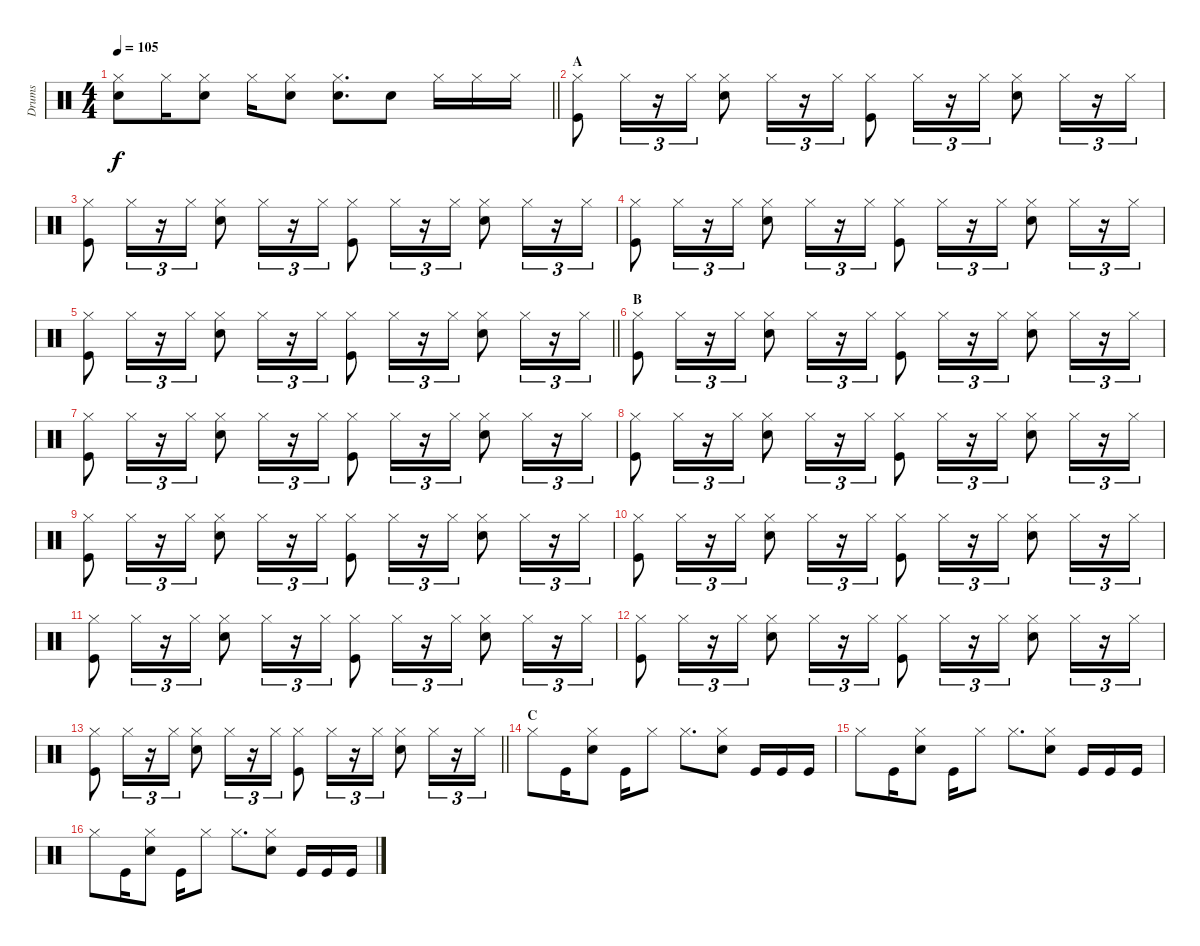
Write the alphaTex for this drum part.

\track ("Drums" "Drums") {instrument percussion}
\staff {score}
\articulation defaults
\ts (4 4)
\tempo 105
\clef neutral
\barLineRight lightlight
\ks c
("Hi-Hat (closed)" "Electric Snare (hit)").8{dy f} "Hi-Hat (closed)".16 ("Hi-Hat (closed)" "Electric Snare (hit)").8 "Hi-Hat (closed)".16 ("Hi-Hat (closed)" "Electric Snare (hit)").8 ("Hi-Hat (closed)" "Electric Snare (hit)").8{d} "Electric Snare (hit)".8 "Hi-Hat (closed)".16 "Hi-Hat (closed)".16 "Hi-Hat (closed)".16 |
\section ("" "A")
("Hi-Hat (closed)" "Kick (hit)").8 "Hi-Hat (closed)".16{tu (3 2)} r.16{tu (3 2)} "Hi-Hat (closed)".16{tu (3 2)} ("Hi-Hat (closed)" "Electric Snare (hit)").8 "Hi-Hat (closed)".16{tu (3 2)} r.16{tu (3 2)} "Hi-Hat (closed)".16{tu (3 2)} ("Hi-Hat (closed)" "Kick (hit)").8 "Hi-Hat (closed)".16{tu (3 2)} r.16{tu (3 2)} "Hi-Hat (closed)".16{tu (3 2)} ("Hi-Hat (closed)" "Electric Snare (hit)").8 "Hi-Hat (closed)".16{tu (3 2)} r.16{tu (3 2)} "Hi-Hat (closed)".16{tu (3 2)} |
("Hi-Hat (closed)" "Kick (hit)").8 "Hi-Hat (closed)".16{tu (3 2)} r.16{tu (3 2)} "Hi-Hat (closed)".16{tu (3 2)} ("Hi-Hat (closed)" "Electric Snare (hit)").8 "Hi-Hat (closed)".16{tu (3 2)} r.16{tu (3 2)} "Hi-Hat (closed)".16{tu (3 2)} ("Hi-Hat (closed)" "Kick (hit)").8 "Hi-Hat (closed)".16{tu (3 2)} r.16{tu (3 2)} "Hi-Hat (closed)".16{tu (3 2)} ("Hi-Hat (closed)" "Electric Snare (hit)").8 "Hi-Hat (closed)".16{tu (3 2)} r.16{tu (3 2)} "Hi-Hat (closed)".16{tu (3 2)} |
("Hi-Hat (closed)" "Kick (hit)").8 "Hi-Hat (closed)".16{tu (3 2)} r.16{tu (3 2)} "Hi-Hat (closed)".16{tu (3 2)} ("Hi-Hat (closed)" "Electric Snare (hit)").8 "Hi-Hat (closed)".16{tu (3 2)} r.16{tu (3 2)} "Hi-Hat (closed)".16{tu (3 2)} ("Hi-Hat (closed)" "Kick (hit)").8 "Hi-Hat (closed)".16{tu (3 2)} r.16{tu (3 2)} "Hi-Hat (closed)".16{tu (3 2)} ("Hi-Hat (closed)" "Electric Snare (hit)").8 "Hi-Hat (closed)".16{tu (3 2)} r.16{tu (3 2)} "Hi-Hat (closed)".16{tu (3 2)} |
\barLineRight lightlight
("Hi-Hat (closed)" "Kick (hit)").8 "Hi-Hat (closed)".16{tu (3 2)} r.16{tu (3 2)} "Hi-Hat (closed)".16{tu (3 2)} ("Hi-Hat (closed)" "Electric Snare (hit)").8 "Hi-Hat (closed)".16{tu (3 2)} r.16{tu (3 2)} "Hi-Hat (closed)".16{tu (3 2)} ("Hi-Hat (closed)" "Kick (hit)").8 "Hi-Hat (closed)".16{tu (3 2)} r.16{tu (3 2)} "Hi-Hat (closed)".16{tu (3 2)} ("Hi-Hat (closed)" "Electric Snare (hit)").8 "Hi-Hat (closed)".16{tu (3 2)} r.16{tu (3 2)} "Hi-Hat (closed)".16{tu (3 2)} |
\section ("" "B")
("Hi-Hat (closed)" "Kick (hit)").8 "Hi-Hat (closed)".16{tu (3 2)} r.16{tu (3 2)} "Hi-Hat (closed)".16{tu (3 2)} ("Hi-Hat (closed)" "Electric Snare (hit)").8 "Hi-Hat (closed)".16{tu (3 2)} r.16{tu (3 2)} "Hi-Hat (closed)".16{tu (3 2)} ("Hi-Hat (closed)" "Kick (hit)").8 "Hi-Hat (closed)".16{tu (3 2)} r.16{tu (3 2)} "Hi-Hat (closed)".16{tu (3 2)} ("Hi-Hat (closed)" "Electric Snare (hit)").8 "Hi-Hat (closed)".16{tu (3 2)} r.16{tu (3 2)} "Hi-Hat (closed)".16{tu (3 2)} |
("Hi-Hat (closed)" "Kick (hit)").8 "Hi-Hat (closed)".16{tu (3 2)} r.16{tu (3 2)} "Hi-Hat (closed)".16{tu (3 2)} ("Hi-Hat (closed)" "Electric Snare (hit)").8 "Hi-Hat (closed)".16{tu (3 2)} r.16{tu (3 2)} "Hi-Hat (closed)".16{tu (3 2)} ("Hi-Hat (closed)" "Kick (hit)").8 "Hi-Hat (closed)".16{tu (3 2)} r.16{tu (3 2)} "Hi-Hat (closed)".16{tu (3 2)} ("Hi-Hat (closed)" "Electric Snare (hit)").8 "Hi-Hat (closed)".16{tu (3 2)} r.16{tu (3 2)} "Hi-Hat (closed)".16{tu (3 2)} |
("Hi-Hat (closed)" "Kick (hit)").8 "Hi-Hat (closed)".16{tu (3 2)} r.16{tu (3 2)} "Hi-Hat (closed)".16{tu (3 2)} ("Hi-Hat (closed)" "Electric Snare (hit)").8 "Hi-Hat (closed)".16{tu (3 2)} r.16{tu (3 2)} "Hi-Hat (closed)".16{tu (3 2)} ("Hi-Hat (closed)" "Kick (hit)").8 "Hi-Hat (closed)".16{tu (3 2)} r.16{tu (3 2)} "Hi-Hat (closed)".16{tu (3 2)} ("Hi-Hat (closed)" "Electric Snare (hit)").8 "Hi-Hat (closed)".16{tu (3 2)} r.16{tu (3 2)} "Hi-Hat (closed)".16{tu (3 2)} |
("Hi-Hat (closed)" "Kick (hit)").8 "Hi-Hat (closed)".16{tu (3 2)} r.16{tu (3 2)} "Hi-Hat (closed)".16{tu (3 2)} ("Hi-Hat (closed)" "Electric Snare (hit)").8 "Hi-Hat (closed)".16{tu (3 2)} r.16{tu (3 2)} "Hi-Hat (closed)".16{tu (3 2)} ("Hi-Hat (closed)" "Kick (hit)").8 "Hi-Hat (closed)".16{tu (3 2)} r.16{tu (3 2)} "Hi-Hat (closed)".16{tu (3 2)} ("Hi-Hat (closed)" "Electric Snare (hit)").8 "Hi-Hat (closed)".16{tu (3 2)} r.16{tu (3 2)} "Hi-Hat (closed)".16{tu (3 2)} |
("Hi-Hat (closed)" "Kick (hit)").8 "Hi-Hat (closed)".16{tu (3 2)} r.16{tu (3 2)} "Hi-Hat (closed)".16{tu (3 2)} ("Hi-Hat (closed)" "Electric Snare (hit)").8 "Hi-Hat (closed)".16{tu (3 2)} r.16{tu (3 2)} "Hi-Hat (closed)".16{tu (3 2)} ("Hi-Hat (closed)" "Kick (hit)").8 "Hi-Hat (closed)".16{tu (3 2)} r.16{tu (3 2)} "Hi-Hat (closed)".16{tu (3 2)} ("Hi-Hat (closed)" "Electric Snare (hit)").8 "Hi-Hat (closed)".16{tu (3 2)} r.16{tu (3 2)} "Hi-Hat (closed)".16{tu (3 2)} |
("Hi-Hat (closed)" "Kick (hit)").8 "Hi-Hat (closed)".16{tu (3 2)} r.16{tu (3 2)} "Hi-Hat (closed)".16{tu (3 2)} ("Hi-Hat (closed)" "Electric Snare (hit)").8 "Hi-Hat (closed)".16{tu (3 2)} r.16{tu (3 2)} "Hi-Hat (closed)".16{tu (3 2)} ("Hi-Hat (closed)" "Kick (hit)").8 "Hi-Hat (closed)".16{tu (3 2)} r.16{tu (3 2)} "Hi-Hat (closed)".16{tu (3 2)} ("Hi-Hat (closed)" "Electric Snare (hit)").8 "Hi-Hat (closed)".16{tu (3 2)} r.16{tu (3 2)} "Hi-Hat (closed)".16{tu (3 2)} |
("Hi-Hat (closed)" "Kick (hit)").8 "Hi-Hat (closed)".16{tu (3 2)} r.16{tu (3 2)} "Hi-Hat (closed)".16{tu (3 2)} ("Hi-Hat (closed)" "Electric Snare (hit)").8 "Hi-Hat (closed)".16{tu (3 2)} r.16{tu (3 2)} "Hi-Hat (closed)".16{tu (3 2)} ("Hi-Hat (closed)" "Kick (hit)").8 "Hi-Hat (closed)".16{tu (3 2)} r.16{tu (3 2)} "Hi-Hat (closed)".16{tu (3 2)} ("Hi-Hat (closed)" "Electric Snare (hit)").8 "Hi-Hat (closed)".16{tu (3 2)} r.16{tu (3 2)} "Hi-Hat (closed)".16{tu (3 2)} |
\barLineRight lightlight
("Hi-Hat (closed)" "Kick (hit)").8 "Hi-Hat (closed)".16{tu (3 2)} r.16{tu (3 2)} "Hi-Hat (closed)".16{tu (3 2)} ("Hi-Hat (closed)" "Electric Snare (hit)").8 "Hi-Hat (closed)".16{tu (3 2)} r.16{tu (3 2)} "Hi-Hat (closed)".16{tu (3 2)} ("Hi-Hat (closed)" "Kick (hit)").8 "Hi-Hat (closed)".16{tu (3 2)} r.16{tu (3 2)} "Hi-Hat (closed)".16{tu (3 2)} ("Hi-Hat (closed)" "Electric Snare (hit)").8 "Hi-Hat (closed)".16{tu (3 2)} r.16{tu (3 2)} "Hi-Hat (closed)".16{tu (3 2)} |
\section ("" "C")
"Hi-Hat (closed)".8 "Kick (hit)".16 ("Hi-Hat (closed)" "Electric Snare (hit)").8 "Kick (hit)".16 "Hi-Hat (closed)".8 "Hi-Hat (closed)".8{d} ("Hi-Hat (closed)" "Electric Snare (hit)").8 "Kick (hit)".16 "Kick (hit)".16 "Kick (hit)".16 |
"Hi-Hat (closed)".8 "Kick (hit)".16 ("Hi-Hat (closed)" "Electric Snare (hit)").8 "Kick (hit)".16 "Hi-Hat (closed)".8 "Hi-Hat (closed)".8{d} ("Hi-Hat (closed)" "Electric Snare (hit)").8 "Kick (hit)".16 "Kick (hit)".16 "Kick (hit)".16 |
"Hi-Hat (closed)".8 "Kick (hit)".16 ("Hi-Hat (closed)" "Electric Snare (hit)").8 "Kick (hit)".16 "Hi-Hat (closed)".8 "Hi-Hat (closed)".8{d} ("Hi-Hat (closed)" "Electric Snare (hit)").8 "Kick (hit)".16 "Kick (hit)".16 "Kick (hit)".16
